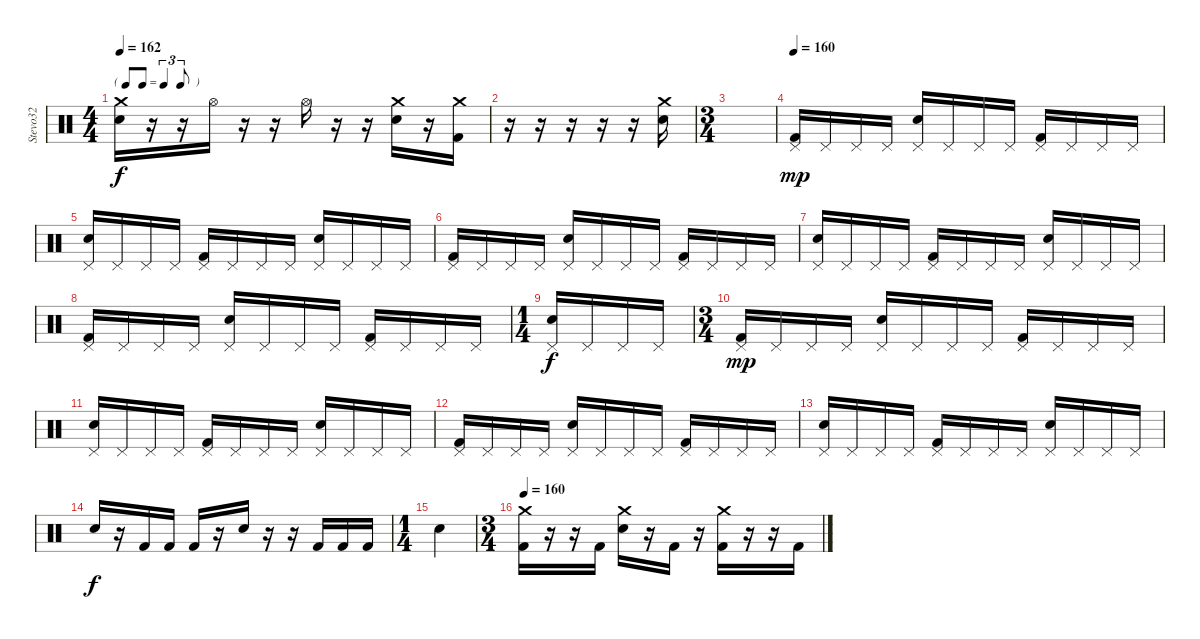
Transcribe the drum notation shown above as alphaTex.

\track ("Stevo32                 drums" "Stevo32   ") {instrument percussion}
\staff {score}
\articulation defaults
\ts (4 4)
\tf triplet8th
\tempo 162
\tempo 120
\tempo 162
\clef neutral
\ks c
("Crash medium (hit)" "Electric Snare (hit)").16{dy f} r.16 r.16 "Hi-Hat (open)".16 r.16 r.16 "Hi-Hat (open)".16 r.16 r.16 ("Crash medium (hit)" "Electric Snare (hit)").16 r.16 ("Crash medium (hit)" "Kick (hit) 2").16 |
r.16 r.16 r.16 r.16 r.16 ("Crash medium (hit)" "Electric Snare (hit)").16 |
\ts (3 4)
|
\tempo 160
("Pedal Hi-Hat (hit)" "Kick (hit) 2").16{dy mp} "Pedal Hi-Hat (hit)".16 "Pedal Hi-Hat (hit)".16 "Pedal Hi-Hat (hit)".16 ("Pedal Hi-Hat (hit)" "Electric Snare (hit)").16 "Pedal Hi-Hat (hit)".16 "Pedal Hi-Hat (hit)".16 "Pedal Hi-Hat (hit)".16 ("Pedal Hi-Hat (hit)" "Kick (hit) 2").16 "Pedal Hi-Hat (hit)".16 "Pedal Hi-Hat (hit)".16 "Pedal Hi-Hat (hit)".16 |
("Pedal Hi-Hat (hit)" "Electric Snare (hit)").16 "Pedal Hi-Hat (hit)".16 "Pedal Hi-Hat (hit)".16 "Pedal Hi-Hat (hit)".16 ("Pedal Hi-Hat (hit)" "Kick (hit) 2").16 "Pedal Hi-Hat (hit)".16 "Pedal Hi-Hat (hit)".16 "Pedal Hi-Hat (hit)".16 ("Pedal Hi-Hat (hit)" "Electric Snare (hit)").16 "Pedal Hi-Hat (hit)".16 "Pedal Hi-Hat (hit)".16 "Pedal Hi-Hat (hit)".16 |
("Pedal Hi-Hat (hit)" "Kick (hit) 2").16 "Pedal Hi-Hat (hit)".16 "Pedal Hi-Hat (hit)".16 "Pedal Hi-Hat (hit)".16 ("Pedal Hi-Hat (hit)" "Electric Snare (hit)").16 "Pedal Hi-Hat (hit)".16 "Pedal Hi-Hat (hit)".16 "Pedal Hi-Hat (hit)".16 ("Pedal Hi-Hat (hit)" "Kick (hit) 2").16 "Pedal Hi-Hat (hit)".16 "Pedal Hi-Hat (hit)".16 "Pedal Hi-Hat (hit)".16 |
("Pedal Hi-Hat (hit)" "Electric Snare (hit)").16 "Pedal Hi-Hat (hit)".16 "Pedal Hi-Hat (hit)".16 "Pedal Hi-Hat (hit)".16 ("Pedal Hi-Hat (hit)" "Kick (hit) 2").16 "Pedal Hi-Hat (hit)".16 "Pedal Hi-Hat (hit)".16 "Pedal Hi-Hat (hit)".16 ("Pedal Hi-Hat (hit)" "Electric Snare (hit)").16 "Pedal Hi-Hat (hit)".16 "Pedal Hi-Hat (hit)".16 "Pedal Hi-Hat (hit)".16 |
("Pedal Hi-Hat (hit)" "Kick (hit) 2").16 "Pedal Hi-Hat (hit)".16 "Pedal Hi-Hat (hit)".16 "Pedal Hi-Hat (hit)".16 ("Pedal Hi-Hat (hit)" "Electric Snare (hit)").16 "Pedal Hi-Hat (hit)".16 "Pedal Hi-Hat (hit)".16 "Pedal Hi-Hat (hit)".16 ("Pedal Hi-Hat (hit)" "Kick (hit) 2").16 "Pedal Hi-Hat (hit)".16 "Pedal Hi-Hat (hit)".16 "Pedal Hi-Hat (hit)".16 |
\ts (1 4)
("Pedal Hi-Hat (hit)" "Electric Snare (hit)").16{dy f} "Pedal Hi-Hat (hit)".16 "Pedal Hi-Hat (hit)".16 "Pedal Hi-Hat (hit)".16 |
\ts (3 4)
("Pedal Hi-Hat (hit)" "Kick (hit) 2").16{dy mp} "Pedal Hi-Hat (hit)".16 "Pedal Hi-Hat (hit)".16 "Pedal Hi-Hat (hit)".16 ("Pedal Hi-Hat (hit)" "Electric Snare (hit)").16 "Pedal Hi-Hat (hit)".16 "Pedal Hi-Hat (hit)".16 "Pedal Hi-Hat (hit)".16 ("Pedal Hi-Hat (hit)" "Kick (hit) 2").16 "Pedal Hi-Hat (hit)".16 "Pedal Hi-Hat (hit)".16 "Pedal Hi-Hat (hit)".16 |
("Pedal Hi-Hat (hit)" "Electric Snare (hit)").16 "Pedal Hi-Hat (hit)".16 "Pedal Hi-Hat (hit)".16 "Pedal Hi-Hat (hit)".16 ("Pedal Hi-Hat (hit)" "Kick (hit) 2").16 "Pedal Hi-Hat (hit)".16 "Pedal Hi-Hat (hit)".16 "Pedal Hi-Hat (hit)".16 ("Pedal Hi-Hat (hit)" "Electric Snare (hit)").16 "Pedal Hi-Hat (hit)".16 "Pedal Hi-Hat (hit)".16 "Pedal Hi-Hat (hit)".16 |
("Pedal Hi-Hat (hit)" "Kick (hit) 2").16 "Pedal Hi-Hat (hit)".16 "Pedal Hi-Hat (hit)".16 "Pedal Hi-Hat (hit)".16 ("Pedal Hi-Hat (hit)" "Electric Snare (hit)").16 "Pedal Hi-Hat (hit)".16 "Pedal Hi-Hat (hit)".16 "Pedal Hi-Hat (hit)".16 ("Pedal Hi-Hat (hit)" "Kick (hit) 2").16 "Pedal Hi-Hat (hit)".16 "Pedal Hi-Hat (hit)".16 "Pedal Hi-Hat (hit)".16 |
("Pedal Hi-Hat (hit)" "Electric Snare (hit)").16 "Pedal Hi-Hat (hit)".16 "Pedal Hi-Hat (hit)".16 "Pedal Hi-Hat (hit)".16 ("Pedal Hi-Hat (hit)" "Kick (hit) 2").16 "Pedal Hi-Hat (hit)".16 "Pedal Hi-Hat (hit)".16 "Pedal Hi-Hat (hit)".16 ("Pedal Hi-Hat (hit)" "Electric Snare (hit)").16 "Pedal Hi-Hat (hit)".16 "Pedal Hi-Hat (hit)".16 "Pedal Hi-Hat (hit)".16 |
"Electric Snare (hit)".16{dy f} r.16 "Kick (hit) 2".16 "Kick (hit) 2".16 "Kick (hit) 2".16 r.16 "Electric Snare (hit)".16 r.16 r.16 "Kick (hit) 2".16 "Kick (hit) 2".16 "Kick (hit) 2".16 |
\ts (1 4)
"Electric Snare (hit)".4 |
\ts (3 4)
\tempo 160
("Crash medium (hit)" "Kick (hit) 2").16 r.16 r.16 "Kick (hit) 2".16 ("Crash medium (hit)" "Electric Snare (hit)").16 r.16 "Kick (hit) 2".16 r.16 ("Crash medium (hit)" "Kick (hit) 2").16 r.16 r.16 "Kick (hit) 2".16
